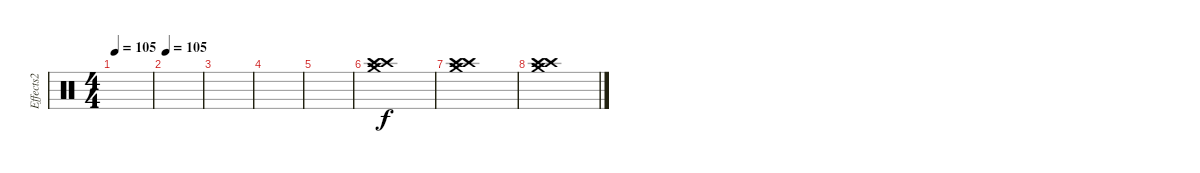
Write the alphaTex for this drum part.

\track ("Effects2" "Effects2") {instrument percussion}
\staff {score}
\articulation defaults
\ts (4 4)
\tempo 105
\clef neutral
\ks c
|
\tempo 105
|
|
|
|
("Crash high (hit)" "Crash medium (hit)" "Crash high (hit)").1 |
("Crash high (hit)" "Crash medium (hit)" "Crash high (hit)").1 |
("Crash high (hit)" "Crash medium (hit)" "Crash high (hit)").1
